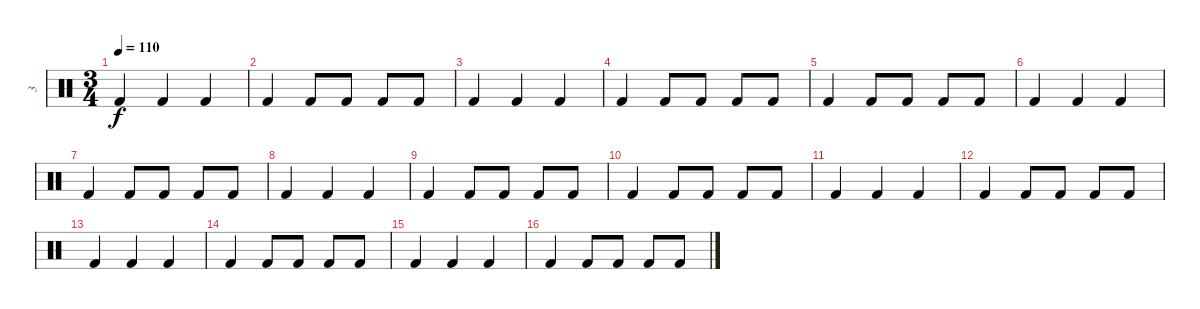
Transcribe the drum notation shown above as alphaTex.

\track ("3" "3") {instrument percussion}
\staff {score}
\articulation defaults
\ts (3 4)
\tempo 110
\clef neutral
\ks c "Kick (hit) 2".4{dy f} "Kick (hit) 2".4 "Kick (hit) 2".4
|
"Kick (hit) 2".4 "Kick (hit) 2".8 "Kick (hit) 2".8 "Kick (hit) 2".8 "Kick (hit) 2".8 |
"Kick (hit) 2".4 "Kick (hit) 2".4 "Kick (hit) 2".4 |
"Kick (hit) 2".4 "Kick (hit) 2".8 "Kick (hit) 2".8 "Kick (hit) 2".8 "Kick (hit) 2".8 |
"Kick (hit) 2".4 "Kick (hit) 2".8 "Kick (hit) 2".8 "Kick (hit) 2".8 "Kick (hit) 2".8 |
"Kick (hit) 2".4 "Kick (hit) 2".4 "Kick (hit) 2".4 |
"Kick (hit) 2".4 "Kick (hit) 2".8 "Kick (hit) 2".8 "Kick (hit) 2".8 "Kick (hit) 2".8 |
"Kick (hit) 2".4 "Kick (hit) 2".4 "Kick (hit) 2".4 |
"Kick (hit) 2".4 "Kick (hit) 2".8 "Kick (hit) 2".8 "Kick (hit) 2".8 "Kick (hit) 2".8 |
"Kick (hit) 2".4 "Kick (hit) 2".8 "Kick (hit) 2".8 "Kick (hit) 2".8 "Kick (hit) 2".8 |
"Kick (hit) 2".4 "Kick (hit) 2".4 "Kick (hit) 2".4 |
"Kick (hit) 2".4 "Kick (hit) 2".8 "Kick (hit) 2".8 "Kick (hit) 2".8 "Kick (hit) 2".8 |
"Kick (hit) 2".4 "Kick (hit) 2".4 "Kick (hit) 2".4 |
"Kick (hit) 2".4 "Kick (hit) 2".8 "Kick (hit) 2".8 "Kick (hit) 2".8 "Kick (hit) 2".8 |
"Kick (hit) 2".4 "Kick (hit) 2".4 "Kick (hit) 2".4 |
"Kick (hit) 2".4 "Kick (hit) 2".8 "Kick (hit) 2".8 "Kick (hit) 2".8 "Kick (hit) 2".8
